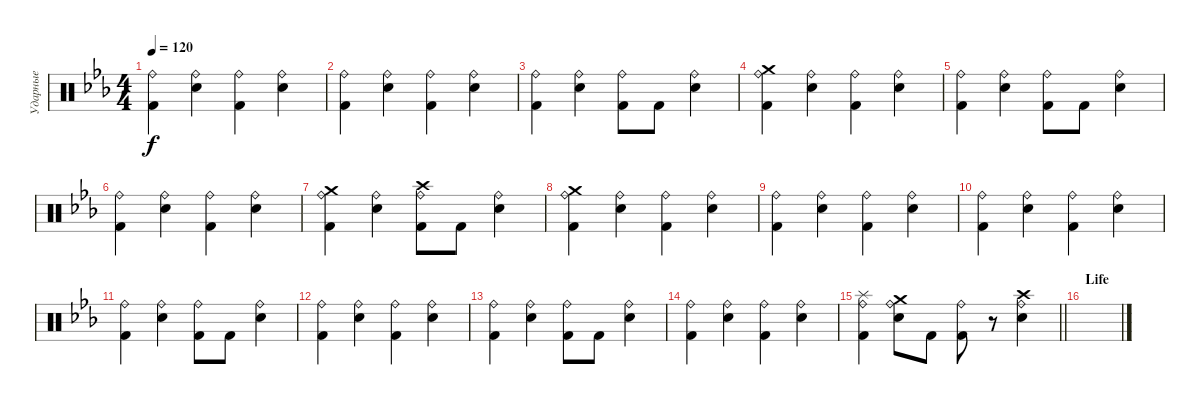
\track ("Ударные" "Ударные") {instrument percussion}
\staff {score}
\articulation defaults
\ts (4 4)
\tempo 120
\clef neutral
\ks cminor
("Kick (hit) 2" "Ride (bell)").4{dy f} ("Electric Snare (hit)" "Ride (bell)").4 ("Kick (hit) 2" "Ride (bell)").4 ("Electric Snare (hit)" "Ride (bell)").4 |
("Kick (hit) 2" "Ride (bell)").4 ("Electric Snare (hit)" "Ride (bell)").4 ("Kick (hit) 2" "Ride (bell)").4 ("Electric Snare (hit)" "Ride (bell)").4 |
("Kick (hit) 2" "Ride (bell)").4 ("Electric Snare (hit)" "Ride (bell)").4 ("Kick (hit) 2" "Ride (bell)").8 "Kick (hit) 2".8 ("Electric Snare (hit)" "Ride (bell)").4 |
("Crash medium (hit)" "Kick (hit) 2" "Ride (bell)").4 ("Electric Snare (hit)" "Ride (bell)").4 ("Kick (hit) 2" "Ride (bell)").4 ("Electric Snare (hit)" "Ride (bell)").4 |
("Kick (hit) 2" "Ride (bell)").4 ("Electric Snare (hit)" "Ride (bell)").4 ("Kick (hit) 2" "Ride (bell)").8 "Kick (hit) 2".8 ("Electric Snare (hit)" "Ride (bell)").4 |
("Kick (hit) 2" "Ride (bell)").4 ("Electric Snare (hit)" "Ride (bell)").4 ("Kick (hit) 2" "Ride (bell)").4 ("Electric Snare (hit)" "Ride (bell)").4 |
("Crash medium (hit)" "Kick (hit) 2" "Ride (bell)").4 ("Electric Snare (hit)" "Ride (bell)").4 ("Crash high (hit)" "Kick (hit) 2" "Ride (bell)").8 "Kick (hit) 2".8 ("Electric Snare (hit)" "Ride (bell)").4 |
("Crash medium (hit)" "Kick (hit) 2" "Ride (bell)").4 ("Electric Snare (hit)" "Ride (bell)").4 ("Kick (hit) 2" "Ride (bell)").4 ("Electric Snare (hit)" "Ride (bell)").4 |
("Kick (hit) 2" "Ride (bell)").4 ("Electric Snare (hit)" "Ride (bell)").4 ("Kick (hit) 2" "Ride (bell)").4 ("Electric Snare (hit)" "Ride (bell)").4 |
("Kick (hit) 2" "Ride (bell)").4 ("Electric Snare (hit)" "Ride (bell)").4 ("Kick (hit) 2" "Ride (bell)").4 ("Electric Snare (hit)" "Ride (bell)").4 |
("Kick (hit) 2" "Ride (bell)").4 ("Electric Snare (hit)" "Ride (bell)").4 ("Kick (hit) 2" "Ride (bell)").8 "Kick (hit) 2".8 ("Electric Snare (hit)" "Ride (bell)").4 |
("Kick (hit) 2" "Ride (bell)").4 ("Electric Snare (hit)" "Ride (bell)").4 ("Kick (hit) 2" "Ride (bell)").4 ("Electric Snare (hit)" "Ride (bell)").4 |
("Kick (hit) 2" "Ride (bell)").4 ("Electric Snare (hit)" "Ride (bell)").4 ("Kick (hit) 2" "Ride (bell)").8 "Kick (hit) 2".8 ("Electric Snare (hit)" "Ride (bell)").4 |
("Kick (hit) 2" "Ride (bell)").4 ("Electric Snare (hit)" "Ride (bell)").4 ("Kick (hit) 2" "Ride (bell)").4 ("Electric Snare (hit)" "Ride (bell)").4 |
\barLineRight lightlight
("Splash (hit)" "Kick (hit) 2" "Ride (bell)").4 ("Crash medium (hit)" "Electric Snare (hit)" "Ride (bell)").8 "Kick (hit) 2".8 ("Kick (hit) 2" "Ride (bell)").8 r.8 ("Crash high (hit)" "Electric Snare (hit)" "Ride (bell)").4 |
\section ("" "Life")
